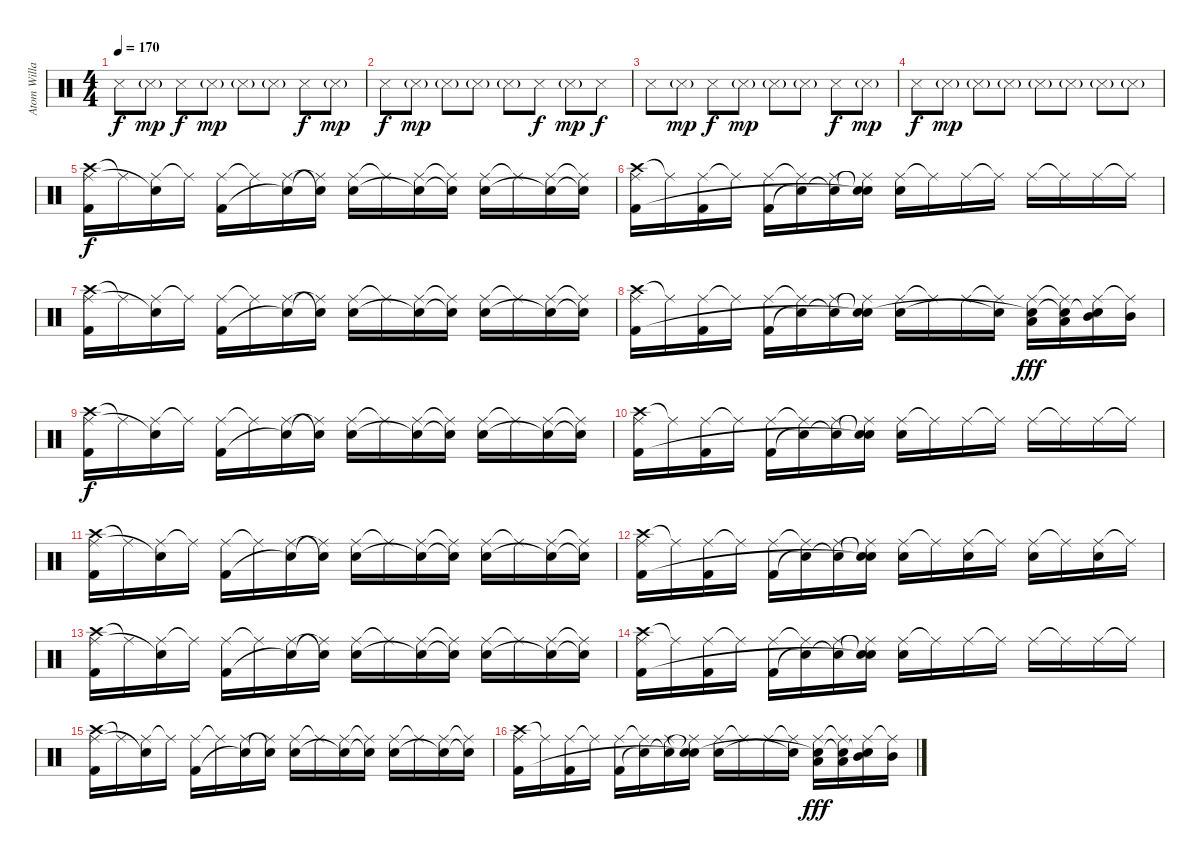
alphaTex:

\track ("Atom Willard" "Atom Willa") {instrument percussion}
\staff {score}
\articulation defaults
\ts (4 4)
\tempo 170
\clef neutral
\ks c "Snare (side stick) 3".8{dy f} "Snare (side stick) 3"{g}.8{dy mp} "Snare (side stick) 3".8{dy f} "Snare (side stick) 3"{g}.8{dy mp} "Snare (side stick) 3"{g}.8 "Snare (side stick) 3"{g}.8 "Snare (side stick) 3".8{dy f} "Snare (side stick) 3"{g}.8{dy mp}
|
"Snare (side stick) 3".8{dy f} "Snare (side stick) 3"{g}.8{dy mp} "Snare (side stick) 3"{g}.8 "Snare (side stick) 3"{g}.8 "Snare (side stick) 3"{g}.8 "Snare (side stick) 3".8{dy f} "Snare (side stick) 3"{g}.8{dy mp} "Snare (side stick) 3".8{dy f} |
"Snare (side stick) 3".8 "Snare (side stick) 3"{g}.8{dy mp} "Snare (side stick) 3".8{dy f} "Snare (side stick) 3"{g}.8{dy mp} "Snare (side stick) 3"{g}.8 "Snare (side stick) 3"{g}.8 "Snare (side stick) 3".8{dy f} "Snare (side stick) 3"{g}.8{dy mp} |
"Snare (side stick) 3".8{dy f} "Snare (side stick) 3"{g}.8{dy mp} "Snare (side stick) 3"{g}.8 "Snare (side stick) 3"{g}.8 "Snare (side stick) 3"{g}.8 "Snare (side stick) 3"{g}.8 "Snare (side stick) 3"{g}.8 "Snare (side stick) 3"{g}.8 |
("Crash high (hit)" "Ride (middle)" "Kick (hit) 2").16{dy f} "Ride (middle)"{t}.16 ("Ride (middle)" "Snare (hit)"{t}).16 "Ride (middle)"{t}.16 ("Ride (middle)" "Kick (hit) 2").16 "Ride (middle)"{t}.16 ("Ride (middle)" "Snare (hit)"{t}).16 ("Snare (hit)"{t} "Ride (middle)"{t}).16 ("Ride (middle)" "Electric Snare (hit)").16 "Ride (middle)"{t}.16 ("Ride (middle)" "Electric Snare (hit)"{t}).16 ("Ride (middle)"{t} "Snare (hit)"{t}).16 ("Ride (middle)" "Electric Snare (hit)").16 "Ride (middle)"{t}.16 ("Ride (middle)" "Snare (hit)"{t}).16 ("Ride (middle)"{t} "Snare (hit)"{t}).16 |
("Crash high (hit)" "Ride (middle)" "Kick (hit) 2").16 "Ride (middle)"{t}.16 ("Ride (middle)" "Kick (hit) 2").16 "Ride (middle)"{t}.16 ("Ride (middle)" "Kick (hit) 2").16 ("Ride (middle)"{t} "Snare (hit)"{t}).16 ("Ride (middle)" "Snare (hit)"{t}).16 ("Snare (hit)"{t} "Ride (middle)"{t} "Snare (hit)"{t}).16 ("Ride (middle)" "Electric Snare (hit)").16 "Ride (middle)"{t}.16 "Ride (middle)".16 "Ride (middle)"{t}.16 "Ride (middle)".16 "Ride (middle)"{t}.16 "Ride (middle)".16 "Ride (middle)"{t}.16 |
("Crash high (hit)" "Ride (middle)" "Kick (hit) 2").16 "Ride (middle)"{t}.16 ("Ride (middle)" "Snare (hit)"{t}).16 "Ride (middle)"{t}.16 ("Ride (middle)" "Kick (hit) 2").16 "Ride (middle)"{t}.16 ("Ride (middle)" "Snare (hit)"{t}).16 ("Snare (hit)"{t} "Ride (middle)"{t}).16 ("Ride (middle)" "Electric Snare (hit)").16 "Ride (middle)"{t}.16 ("Ride (middle)" "Electric Snare (hit)"{t}).16 ("Ride (middle)"{t} "Snare (hit)"{t}).16 ("Ride (middle)" "Electric Snare (hit)").16 "Ride (middle)"{t}.16 ("Ride (middle)" "Snare (hit)"{t}).16 ("Ride (middle)"{t} "Snare (hit)"{t}).16 |
("Crash high (hit)" "Ride (middle)" "Kick (hit) 2").16 "Ride (middle)"{t}.16 ("Ride (middle)" "Kick (hit) 2").16 "Ride (middle)"{t}.16 ("Ride (middle)" "Kick (hit) 2").16 ("Ride (middle)"{t} "Snare (hit)"{t}).16 ("Ride (middle)" "Snare (hit)"{t}).16 ("Snare (hit)"{t} "Ride (middle)"{t} "Snare (hit)"{t}).16 ("Ride (middle)" "Electric Snare (hit)").16 "Ride (middle)"{t}.16 "Ride (middle)".16 ("Ride (middle)"{t} "Snare (hit)"{t}).16 ("Low Tom (hit)" "Ride (middle)" "Snare (hit)"{t}).16{dy fff} ("Low Tom (hit)" "Ride (middle)"{t} "Snare (hit)"{t}).16 ("Mid Tom (hit)" "Ride (middle)" "Snare (hit)"{t}).16 ("Mid Tom (hit)" "Ride (middle)"{t}).16 |
("Crash high (hit)" "Ride (middle)" "Kick (hit) 2").16{dy f} "Ride (middle)"{t}.16 ("Ride (middle)" "Snare (hit)"{t}).16 "Ride (middle)"{t}.16 ("Ride (middle)" "Kick (hit) 2").16 "Ride (middle)"{t}.16 ("Ride (middle)" "Snare (hit)"{t}).16 ("Snare (hit)"{t} "Ride (middle)"{t}).16 ("Ride (middle)" "Electric Snare (hit)").16 "Ride (middle)"{t}.16 ("Ride (middle)" "Electric Snare (hit)"{t}).16 ("Ride (middle)"{t} "Snare (hit)"{t}).16 ("Ride (middle)" "Electric Snare (hit)").16 "Ride (middle)"{t}.16 ("Ride (middle)" "Snare (hit)"{t}).16 ("Ride (middle)"{t} "Snare (hit)"{t}).16 |
("Crash high (hit)" "Ride (middle)" "Kick (hit) 2").16 "Ride (middle)"{t}.16 ("Ride (middle)" "Kick (hit) 2").16 "Ride (middle)"{t}.16 ("Ride (middle)" "Kick (hit) 2").16 ("Ride (middle)"{t} "Snare (hit)"{t}).16 ("Ride (middle)" "Snare (hit)"{t}).16 ("Snare (hit)"{t} "Ride (middle)"{t} "Snare (hit)"{t}).16 ("Ride (middle)" "Electric Snare (hit)").16 "Ride (middle)"{t}.16 "Ride (middle)".16 "Ride (middle)"{t}.16 "Ride (middle)".16 "Ride (middle)"{t}.16 "Ride (middle)".16 "Ride (middle)"{t}.16 |
("Crash high (hit)" "Ride (middle)" "Kick (hit) 2").16 "Ride (middle)"{t}.16 ("Ride (middle)" "Snare (hit)"{t}).16 "Ride (middle)"{t}.16 ("Ride (middle)" "Kick (hit) 2").16 "Ride (middle)"{t}.16 ("Ride (middle)" "Snare (hit)"{t}).16 ("Snare (hit)"{t} "Ride (middle)"{t}).16 ("Ride (middle)" "Electric Snare (hit)").16 "Ride (middle)"{t}.16 ("Ride (middle)" "Electric Snare (hit)"{t}).16 ("Ride (middle)"{t} "Snare (hit)"{t}).16 ("Ride (middle)" "Electric Snare (hit)").16 "Ride (middle)"{t}.16 ("Ride (middle)" "Snare (hit)"{t}).16 ("Ride (middle)"{t} "Snare (hit)"{t}).16 |
("Crash high (hit)" "Ride (middle)" "Kick (hit) 2").16 "Ride (middle)"{t}.16 ("Ride (middle)" "Kick (hit) 2").16 "Ride (middle)"{t}.16 ("Ride (middle)" "Kick (hit) 2").16 ("Ride (middle)"{t} "Snare (hit)"{t}).16 ("Ride (middle)" "Snare (hit)"{t}).16 ("Snare (hit)"{t} "Ride (middle)"{t} "Snare (hit)"{t}).16 ("Ride (middle)" "Electric Snare (hit)").16 "Ride (middle)"{t}.16 ("Ride (middle)" "Electric Snare (hit)").16 "Ride (middle)"{t}.16 ("Ride (middle)" "Electric Snare (hit)").16 "Ride (middle)"{t}.16 ("Ride (middle)" "Electric Snare (hit)").16 "Ride (middle)"{t}.16 |
("Crash high (hit)" "Ride (middle)" "Kick (hit) 2").16 "Ride (middle)"{t}.16 ("Ride (middle)" "Snare (hit)"{t}).16 "Ride (middle)"{t}.16 ("Ride (middle)" "Kick (hit) 2").16 "Ride (middle)"{t}.16 ("Ride (middle)" "Snare (hit)"{t}).16 ("Snare (hit)"{t} "Ride (middle)"{t}).16 ("Ride (middle)" "Electric Snare (hit)").16 "Ride (middle)"{t}.16 ("Ride (middle)" "Electric Snare (hit)"{t}).16 ("Ride (middle)"{t} "Snare (hit)"{t}).16 ("Ride (middle)" "Electric Snare (hit)").16 "Ride (middle)"{t}.16 ("Ride (middle)" "Snare (hit)"{t}).16 ("Ride (middle)"{t} "Snare (hit)"{t}).16 |
("Crash high (hit)" "Ride (middle)" "Kick (hit) 2").16 "Ride (middle)"{t}.16 ("Ride (middle)" "Kick (hit) 2").16 "Ride (middle)"{t}.16 ("Ride (middle)" "Kick (hit) 2").16 ("Ride (middle)"{t} "Snare (hit)"{t}).16 ("Ride (middle)" "Snare (hit)"{t}).16 ("Snare (hit)"{t} "Ride (middle)"{t} "Snare (hit)"{t}).16 ("Ride (middle)" "Electric Snare (hit)").16 "Ride (middle)"{t}.16 "Ride (middle)".16 "Ride (middle)"{t}.16 "Ride (middle)".16 "Ride (middle)"{t}.16 "Ride (middle)".16 "Ride (middle)"{t}.16 |
("Crash high (hit)" "Ride (middle)" "Kick (hit) 2").16 "Ride (middle)"{t}.16 ("Ride (middle)" "Snare (hit)"{t}).16 "Ride (middle)"{t}.16 ("Ride (middle)" "Kick (hit) 2").16 "Ride (middle)"{t}.16 ("Ride (middle)" "Snare (hit)"{t}).16 ("Snare (hit)"{t} "Ride (middle)"{t}).16 ("Ride (middle)" "Electric Snare (hit)").16 "Ride (middle)"{t}.16 ("Ride (middle)" "Electric Snare (hit)"{t}).16 ("Ride (middle)"{t} "Snare (hit)"{t}).16 ("Ride (middle)" "Electric Snare (hit)").16 "Ride (middle)"{t}.16 ("Ride (middle)" "Snare (hit)"{t}).16 ("Ride (middle)"{t} "Snare (hit)"{t}).16 |
("Crash high (hit)" "Ride (middle)" "Kick (hit) 2").16 "Ride (middle)"{t}.16 ("Ride (middle)" "Kick (hit) 2").16 "Ride (middle)"{t}.16 ("Ride (middle)" "Kick (hit) 2").16 ("Ride (middle)"{t} "Snare (hit)"{t}).16 ("Ride (middle)" "Snare (hit)"{t}).16 ("Snare (hit)"{t} "Ride (middle)"{t} "Snare (hit)"{t}).16 ("Ride (middle)" "Electric Snare (hit)").16 "Ride (middle)"{t}.16 "Ride (middle)".16 ("Ride (middle)"{t} "Snare (hit)"{t}).16 ("Low Tom (hit)" "Ride (middle)" "Snare (hit)"{t}).16{dy fff} ("Low Tom (hit)" "Ride (middle)"{t} "Snare (hit)"{t}).16 ("Mid Tom (hit)" "Ride (middle)" "Snare (hit)"{t}).16 ("Mid Tom (hit)" "Ride (middle)"{t}).16
